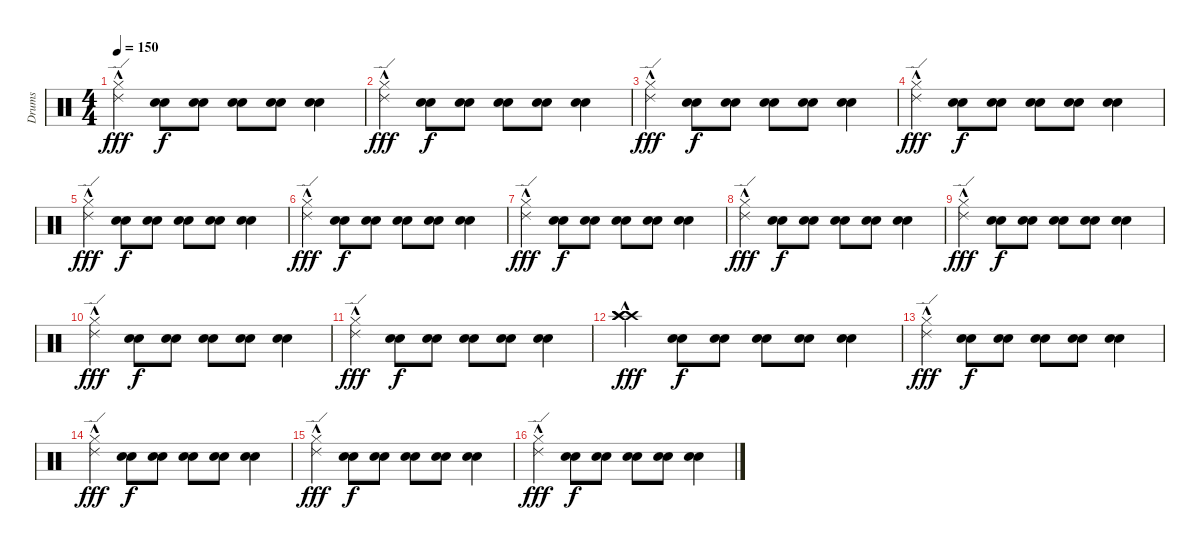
\track ("Drums" "Drums") {instrument percussion}
\staff {score}
\articulation defaults
\ts (4 4)
\tempo 150
\clef neutral
\ks c
("Hi-Hat (closed)" "Ride (edge) 2"{hac}).4{dy fff} ("Electric Snare (hit)" "Electric Snare (hit)").8{dy f} ("Electric Snare (hit)" "Electric Snare (hit)").8 ("Electric Snare (hit)" "Electric Snare (hit)").8 ("Electric Snare (hit)" "Electric Snare (hit)").8 ("Electric Snare (hit)" "Electric Snare (hit)").4 |
("Hi-Hat (closed)" "Ride (edge) 2"{hac}).4{dy fff} ("Electric Snare (hit)" "Electric Snare (hit)").8{dy f} ("Electric Snare (hit)" "Electric Snare (hit)").8 ("Electric Snare (hit)" "Electric Snare (hit)").8 ("Electric Snare (hit)" "Electric Snare (hit)").8 ("Electric Snare (hit)" "Electric Snare (hit)").4 |
("Hi-Hat (closed)" "Ride (edge) 2"{hac}).4{dy fff} ("Electric Snare (hit)" "Electric Snare (hit)").8{dy f} ("Electric Snare (hit)" "Electric Snare (hit)").8 ("Electric Snare (hit)" "Electric Snare (hit)").8 ("Electric Snare (hit)" "Electric Snare (hit)").8 ("Electric Snare (hit)" "Electric Snare (hit)").4 |
("Hi-Hat (closed)" "Ride (edge) 2"{hac}).4{dy fff} ("Electric Snare (hit)" "Electric Snare (hit)").8{dy f} ("Electric Snare (hit)" "Electric Snare (hit)").8 ("Electric Snare (hit)" "Electric Snare (hit)").8 ("Electric Snare (hit)" "Electric Snare (hit)").8 ("Electric Snare (hit)" "Electric Snare (hit)").4 |
("Hi-Hat (closed)" "Ride (edge) 2"{hac}).4{dy fff} ("Electric Snare (hit)" "Electric Snare (hit)").8{dy f} ("Electric Snare (hit)" "Electric Snare (hit)").8 ("Electric Snare (hit)" "Electric Snare (hit)").8 ("Electric Snare (hit)" "Electric Snare (hit)").8 ("Electric Snare (hit)" "Electric Snare (hit)").4 |
("Hi-Hat (closed)" "Ride (edge) 2"{hac}).4{dy fff} ("Electric Snare (hit)" "Electric Snare (hit)").8{dy f} ("Electric Snare (hit)" "Electric Snare (hit)").8 ("Electric Snare (hit)" "Electric Snare (hit)").8 ("Electric Snare (hit)" "Electric Snare (hit)").8 ("Electric Snare (hit)" "Electric Snare (hit)").4 |
("Hi-Hat (closed)" "Ride (edge) 2"{hac}).4{dy fff} ("Electric Snare (hit)" "Electric Snare (hit)").8{dy f} ("Electric Snare (hit)" "Electric Snare (hit)").8 ("Electric Snare (hit)" "Electric Snare (hit)").8 ("Electric Snare (hit)" "Electric Snare (hit)").8 ("Electric Snare (hit)" "Electric Snare (hit)").4 |
("Hi-Hat (closed)" "Ride (edge) 2"{hac}).4{dy fff} ("Electric Snare (hit)" "Electric Snare (hit)").8{dy f} ("Electric Snare (hit)" "Electric Snare (hit)").8 ("Electric Snare (hit)" "Electric Snare (hit)").8 ("Electric Snare (hit)" "Electric Snare (hit)").8 ("Electric Snare (hit)" "Electric Snare (hit)").4 |
("Hi-Hat (closed)" "Ride (edge) 2"{hac}).4{dy fff} ("Electric Snare (hit)" "Electric Snare (hit)").8{dy f} ("Electric Snare (hit)" "Electric Snare (hit)").8 ("Electric Snare (hit)" "Electric Snare (hit)").8 ("Electric Snare (hit)" "Electric Snare (hit)").8 ("Electric Snare (hit)" "Electric Snare (hit)").4 |
("Hi-Hat (closed)" "Ride (edge) 2"{hac}).4{dy fff} ("Electric Snare (hit)" "Electric Snare (hit)").8{dy f} ("Electric Snare (hit)" "Electric Snare (hit)").8 ("Electric Snare (hit)" "Electric Snare (hit)").8 ("Electric Snare (hit)" "Electric Snare (hit)").8 ("Electric Snare (hit)" "Electric Snare (hit)").4 |
("Hi-Hat (closed)" "Ride (edge) 2"{hac}).4{dy fff} ("Electric Snare (hit)" "Electric Snare (hit)").8{dy f} ("Electric Snare (hit)" "Electric Snare (hit)").8 ("Electric Snare (hit)" "Electric Snare (hit)").8 ("Electric Snare (hit)" "Electric Snare (hit)").8 ("Electric Snare (hit)" "Electric Snare (hit)").4 |
("Crash high (hit)"{hac} "Crash high (hit)"{hac} "Crash high (hit)"{hac}).4{dy fff} ("Electric Snare (hit)" "Electric Snare (hit)").8{dy f} ("Snare (hit) 2" "Electric Snare (hit)").8 ("Electric Snare (hit)" "Electric Snare (hit)").8 ("Electric Snare (hit)" "Electric Snare (hit)").8 ("Electric Snare (hit)" "Electric Snare (hit)").4 |
("Hi-Hat (closed)" "Ride (edge) 2"{hac}).4{dy fff} ("Electric Snare (hit)" "Electric Snare (hit)").8{dy f} ("Electric Snare (hit)" "Electric Snare (hit)").8 ("Electric Snare (hit)" "Electric Snare (hit)").8 ("Electric Snare (hit)" "Electric Snare (hit)").8 ("Electric Snare (hit)" "Electric Snare (hit)").4 |
("Hi-Hat (closed)" "Ride (edge) 2"{hac}).4{dy fff} ("Electric Snare (hit)" "Electric Snare (hit)").8{dy f} ("Electric Snare (hit)" "Electric Snare (hit)").8 ("Electric Snare (hit)" "Electric Snare (hit)").8 ("Electric Snare (hit)" "Electric Snare (hit)").8 ("Electric Snare (hit)" "Electric Snare (hit)").4 |
("Hi-Hat (closed)" "Ride (edge) 2"{hac}).4{dy fff} ("Electric Snare (hit)" "Electric Snare (hit)").8{dy f} ("Electric Snare (hit)" "Electric Snare (hit)").8 ("Electric Snare (hit)" "Electric Snare (hit)").8 ("Electric Snare (hit)" "Electric Snare (hit)").8 ("Electric Snare (hit)" "Electric Snare (hit)").4 |
("Hi-Hat (closed)" "Ride (edge) 2"{hac}).4{dy fff} ("Electric Snare (hit)" "Electric Snare (hit)").8{dy f} ("Electric Snare (hit)" "Electric Snare (hit)").8 ("Electric Snare (hit)" "Electric Snare (hit)").8 ("Electric Snare (hit)" "Electric Snare (hit)").8 ("Electric Snare (hit)" "Electric Snare (hit)").4
